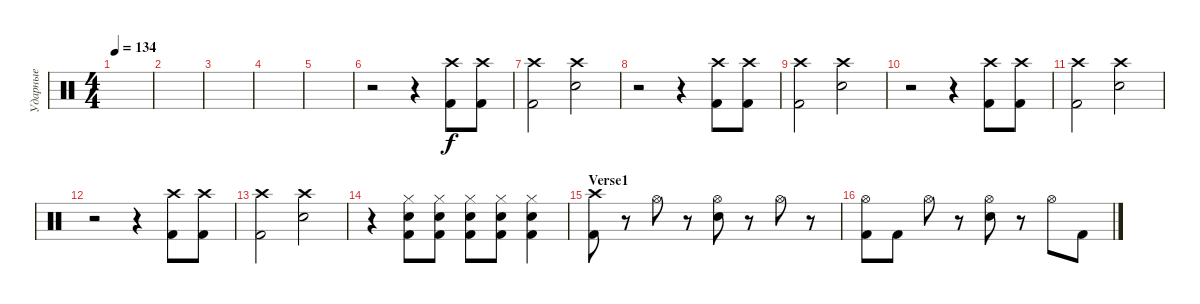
\track ("Ударные" "Ударные") {instrument percussion}
\staff {score}
\articulation defaults
\ts (4 4)
\tempo 134
\clef neutral
\ks c
|
|
|
|
|
r.2 r.4 ("Crash high (hit)" "Kick (hit) 2").8 ("Crash high (hit)" "Kick (hit) 2").8 |
("Crash high (hit)" "Kick (hit) 2").2 ("Crash high (hit)" "Electric Snare (hit)").2 |
r.2 r.4 ("Crash high (hit)" "Kick (hit) 2").8 ("Crash high (hit)" "Kick (hit) 2").8 |
("Crash high (hit)" "Kick (hit) 2").2 ("Crash high (hit)" "Electric Snare (hit)").2 |
r.2 r.4 ("Crash high (hit)" "Kick (hit) 2").8 ("Crash high (hit)" "Kick (hit) 2").8 |
("Crash high (hit)" "Kick (hit) 2").2 ("Crash high (hit)" "Electric Snare (hit)").2 |
r.2 r.4 ("Crash high (hit)" "Kick (hit) 2").8 ("Crash high (hit)" "Kick (hit) 2").8 |
("Crash high (hit)" "Kick (hit) 2").2 ("Crash high (hit)" "Electric Snare (hit)").2 |
r.4 ("Hi-Hat (closed)" "Electric Snare (hit)" "Kick (hit) 2").8 ("Hi-Hat (closed)" "Electric Snare (hit)" "Kick (hit) 2").8 ("Hi-Hat (closed)" "Electric Snare (hit)" "Kick (hit) 2").8 ("Hi-Hat (closed)" "Electric Snare (hit)" "Kick (hit) 2").8 ("Hi-Hat (closed)" "Electric Snare (hit)" "Kick (hit) 2").4 |
\section ("" "Verse1")
("Crash high (hit)" "Kick (hit) 2").8 r.8 "Hi-Hat (open)".8 r.8 ("Hi-Hat (open)" "Electric Snare (hit)").8 r.8 "Hi-Hat (open)".8 r.8 |
("Hi-Hat (open)" "Kick (hit) 2").8 "Kick (hit) 2".8 "Hi-Hat (open)".8 r.8 ("Hi-Hat (open)" "Electric Snare (hit)").8 r.8 "Hi-Hat (open)".8 "Kick (hit) 2".8
